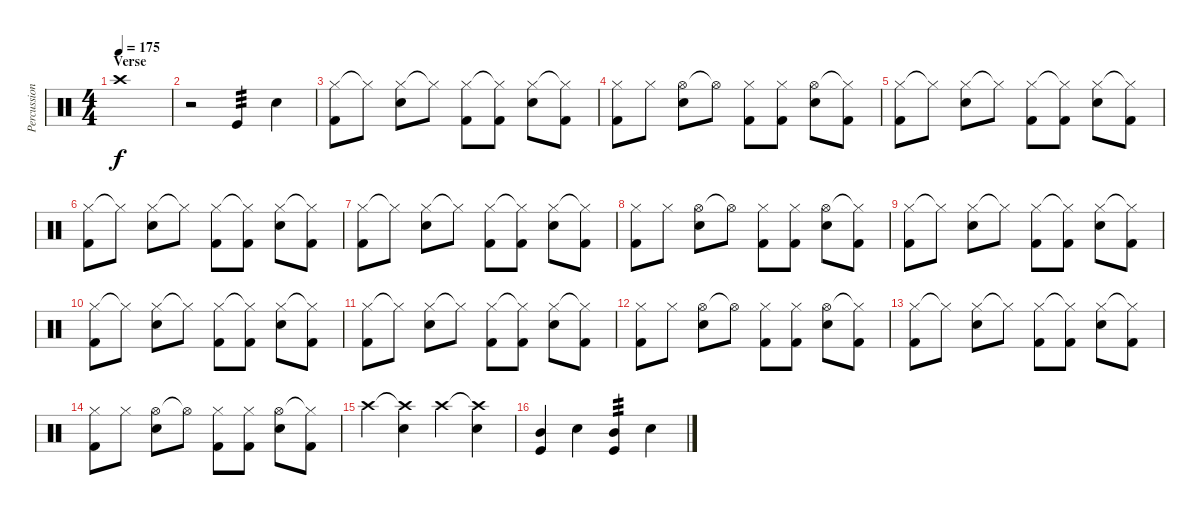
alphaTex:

\track ("Percussion" "Percussion") {instrument percussion}
\staff {score}
\articulation defaults
\ts (4 4)
\section ("" "Verse")
\tempo 175
\clef neutral
\ks c "Crash high (hit)".1{dy f}
|
r.2 "Kick (hit)".4{tp 3} "Snare (hit) 2".4 |
("Hi-Hat (closed)" "Kick (hit) 2").8 "Hi-Hat (closed)"{t}.8 ("Hi-Hat (closed)" "Snare (hit) 2").8 "Hi-Hat (closed)"{t}.8 ("Hi-Hat (closed)" "Kick (hit) 2").8 ("Hi-Hat (closed)"{t} "Kick (hit) 2").8 ("Hi-Hat (closed)" "Snare (hit) 2").8 ("Hi-Hat (closed)"{t} "Kick (hit) 2").8 |
("Hi-Hat (closed)" "Kick (hit) 2").8 "Hi-Hat (closed)".8 ("Hi-Hat (open)" "Snare (hit) 2").8 "Hi-Hat (open)"{t}.8 ("Hi-Hat (closed)" "Kick (hit) 2").8 ("Hi-Hat (closed)" "Kick (hit) 2").8 ("Hi-Hat (open)" "Snare (hit) 2").8 ("Hi-Hat (closed)"{t} "Kick (hit) 2").8 |
("Hi-Hat (closed)" "Kick (hit) 2").8 "Hi-Hat (closed)"{t}.8 ("Hi-Hat (closed)" "Snare (hit) 2").8 "Hi-Hat (closed)"{t}.8 ("Hi-Hat (closed)" "Kick (hit) 2").8 ("Hi-Hat (closed)"{t} "Kick (hit) 2").8 ("Hi-Hat (closed)" "Snare (hit) 2").8 ("Hi-Hat (closed)"{t} "Kick (hit) 2").8 |
("Hi-Hat (closed)" "Kick (hit) 2").8 "Hi-Hat (closed)"{t}.8 ("Hi-Hat (closed)" "Snare (hit) 2").8 "Hi-Hat (closed)"{t}.8 ("Hi-Hat (closed)" "Kick (hit) 2").8 ("Hi-Hat (closed)"{t} "Kick (hit) 2").8 ("Hi-Hat (closed)" "Snare (hit) 2").8 ("Hi-Hat (closed)"{t} "Kick (hit) 2").8 |
("Hi-Hat (closed)" "Kick (hit) 2").8 "Hi-Hat (closed)"{t}.8 ("Hi-Hat (closed)" "Snare (hit) 2").8 "Hi-Hat (closed)"{t}.8 ("Hi-Hat (closed)" "Kick (hit) 2").8 ("Hi-Hat (closed)"{t} "Kick (hit) 2").8 ("Hi-Hat (closed)" "Snare (hit) 2").8 ("Hi-Hat (closed)"{t} "Kick (hit) 2").8 |
("Hi-Hat (closed)" "Kick (hit) 2").8 "Hi-Hat (closed)".8 ("Hi-Hat (open)" "Snare (hit) 2").8 "Hi-Hat (open)"{t}.8 ("Hi-Hat (closed)" "Kick (hit) 2").8 ("Hi-Hat (closed)" "Kick (hit) 2").8 ("Hi-Hat (open)" "Snare (hit) 2").8 ("Hi-Hat (closed)"{t} "Kick (hit) 2").8 |
("Hi-Hat (closed)" "Kick (hit) 2").8 "Hi-Hat (closed)"{t}.8 ("Hi-Hat (closed)" "Snare (hit) 2").8 "Hi-Hat (closed)"{t}.8 ("Hi-Hat (closed)" "Kick (hit) 2").8 ("Hi-Hat (closed)"{t} "Kick (hit) 2").8 ("Hi-Hat (closed)" "Snare (hit) 2").8 ("Hi-Hat (closed)"{t} "Kick (hit) 2").8 |
("Hi-Hat (closed)" "Kick (hit) 2").8 "Hi-Hat (closed)"{t}.8 ("Hi-Hat (closed)" "Snare (hit) 2").8 "Hi-Hat (closed)"{t}.8 ("Hi-Hat (closed)" "Kick (hit) 2").8 ("Hi-Hat (closed)"{t} "Kick (hit) 2").8 ("Hi-Hat (closed)" "Snare (hit) 2").8 ("Hi-Hat (closed)"{t} "Kick (hit) 2").8 |
("Hi-Hat (closed)" "Kick (hit) 2").8 "Hi-Hat (closed)"{t}.8 ("Hi-Hat (closed)" "Snare (hit) 2").8 "Hi-Hat (closed)"{t}.8 ("Hi-Hat (closed)" "Kick (hit) 2").8 ("Hi-Hat (closed)"{t} "Kick (hit) 2").8 ("Hi-Hat (closed)" "Snare (hit) 2").8 ("Hi-Hat (closed)"{t} "Kick (hit) 2").8 |
("Hi-Hat (closed)" "Kick (hit) 2").8 "Hi-Hat (closed)".8 ("Hi-Hat (open)" "Snare (hit) 2").8 "Hi-Hat (open)"{t}.8 ("Hi-Hat (closed)" "Kick (hit) 2").8 ("Hi-Hat (closed)" "Kick (hit) 2").8 ("Hi-Hat (open)" "Snare (hit) 2").8 ("Hi-Hat (closed)"{t} "Kick (hit) 2").8 |
("Hi-Hat (closed)" "Kick (hit) 2").8 "Hi-Hat (closed)"{t}.8 ("Hi-Hat (closed)" "Snare (hit) 2").8 "Hi-Hat (closed)"{t}.8 ("Hi-Hat (closed)" "Kick (hit) 2").8 ("Hi-Hat (closed)"{t} "Kick (hit) 2").8 ("Hi-Hat (closed)" "Snare (hit) 2").8 ("Hi-Hat (closed)"{t} "Kick (hit) 2").8 |
("Hi-Hat (closed)" "Kick (hit) 2").8 "Hi-Hat (closed)".8 ("Hi-Hat (open)" "Snare (hit) 2").8 "Hi-Hat (open)"{t}.8 ("Hi-Hat (closed)" "Kick (hit) 2").8 ("Hi-Hat (closed)" "Kick (hit) 2").8 ("Hi-Hat (open)" "Snare (hit) 2").8 ("Hi-Hat (closed)"{t} "Kick (hit) 2").8 |
"Crash high (hit)".4 ("Crash high (hit)"{t} "Snare (hit) 2").4 "Crash high (hit)".4 ("Crash high (hit)"{t} "Snare (hit) 2").4 |
("Mid Tom (hit)" "Kick (hit)").4 "Snare (hit) 2".4 ("Mid Tom (hit)" "Kick (hit)").4{tp 3} "Snare (hit) 2".4
